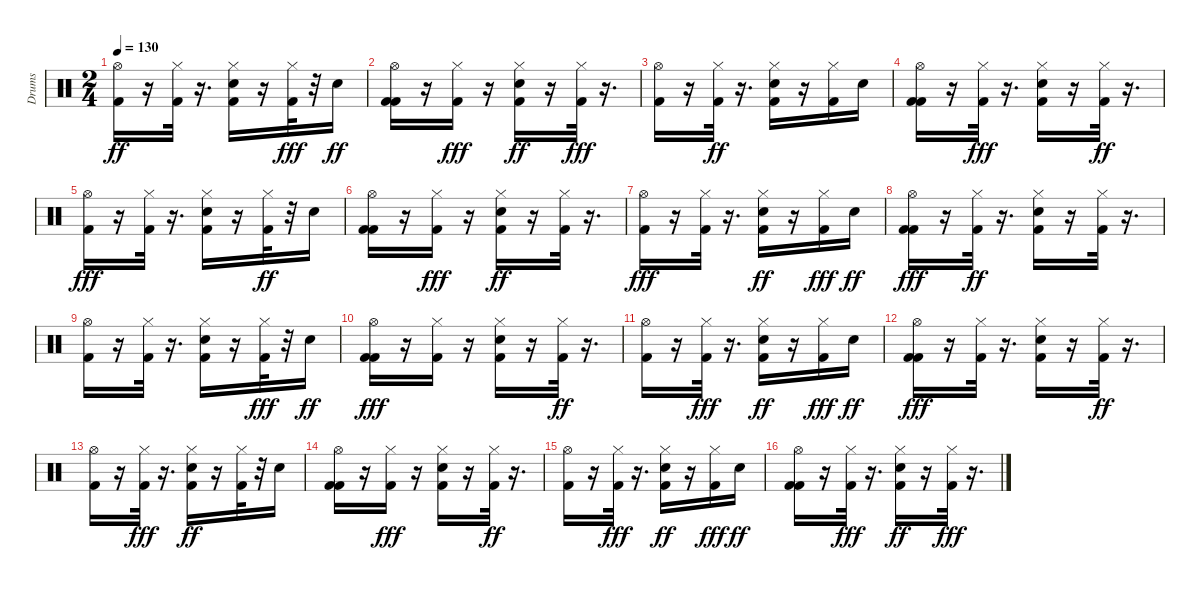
\track ("Drums" "Drums") {solo instrument percussion}
\staff {score}
\articulation defaults
\ts (2 4)
\tempo 130
\clef neutral
\ks c
("Hi-Hat (open)" "Kick (hit) 2").16{dy ff} r.16 ("Hi-Hat (closed)" "Kick (hit) 2").32 r.16{d} ("Snare (hit) 2" "Hi-Hat (closed)" "Kick (hit) 2").16 r.16 ("Kick (hit) 2" "Hi-Hat (closed)").32{dy fff} r.32 "Snare (hit) 2".16{dy ff} |
("Kick (hit) 2" "Hi-Hat (open)" "Kick (hit) 2").16 r.16 ("Kick (hit) 2" "Hi-Hat (closed)").16{dy fff} r.16 ("Kick (hit) 2" "Hi-Hat (closed)" "Snare (hit) 2").16{dy ff} r.16 ("Kick (hit) 2" "Hi-Hat (closed)").32{dy fff} r.16{d} |
("Kick (hit) 2" "Hi-Hat (open)").16 r.16 ("Hi-Hat (closed)" "Kick (hit) 2").32{dy ff} r.16{d} ("Hi-Hat (closed)" "Kick (hit) 2" "Snare (hit) 2").16 r.16 ("Hi-Hat (closed)" "Kick (hit) 2").16 "Snare (hit) 2".16 |
("Hi-Hat (open)" "Kick (hit) 2" "Kick (hit) 2").16 r.16 ("Kick (hit) 2" "Hi-Hat (closed)").32{dy fff} r.16{d} ("Kick (hit) 2" "Snare (hit) 2" "Hi-Hat (closed)").16 r.16 ("Hi-Hat (closed)" "Kick (hit) 2").32{dy ff} r.16{d} |
("Kick (hit) 2" "Hi-Hat (open)").16{dy fff} r.16 ("Kick (hit) 2" "Hi-Hat (closed)").32 r.16{d} ("Snare (hit) 2" "Kick (hit) 2" "Hi-Hat (closed)").16 r.16 ("Hi-Hat (closed)" "Kick (hit) 2").32{dy ff} r.32 "Snare (hit) 2".16 |
("Kick (hit) 2" "Hi-Hat (open)" "Kick (hit) 2").16 r.16 ("Kick (hit) 2" "Hi-Hat (closed)").16{dy fff} r.16 ("Hi-Hat (closed)" "Snare (hit) 2" "Kick (hit) 2").16{dy ff} r.16 ("Hi-Hat (closed)" "Kick (hit) 2").32 r.16{d} |
("Kick (hit) 2" "Hi-Hat (open)").16{dy fff} r.16 ("Kick (hit) 2" "Hi-Hat (closed)").32 r.16{d} ("Hi-Hat (closed)" "Snare (hit) 2" "Kick (hit) 2").16{dy ff} r.16 ("Kick (hit) 2" "Hi-Hat (closed)").16{dy fff} "Snare (hit) 2".16{dy ff} |
("Kick (hit) 2" "Kick (hit) 2" "Hi-Hat (open)").16{dy fff} r.16 ("Hi-Hat (closed)" "Kick (hit) 2").32{dy ff} r.16{d} ("Kick (hit) 2" "Hi-Hat (closed)" "Snare (hit) 2").16 r.16 ("Hi-Hat (closed)" "Kick (hit) 2").32 r.16{d} |
("Hi-Hat (open)" "Kick (hit) 2").16 r.16 ("Hi-Hat (closed)" "Kick (hit) 2").32 r.16{d} ("Kick (hit) 2" "Hi-Hat (closed)" "Snare (hit) 2").16 r.16 ("Kick (hit) 2" "Hi-Hat (closed)").32{dy fff} r.32 "Snare (hit) 2".16{dy ff} |
("Kick (hit) 2" "Kick (hit) 2" "Hi-Hat (open)").16{dy fff} r.16 ("Kick (hit) 2" "Hi-Hat (closed)").16 r.16 ("Snare (hit) 2" "Kick (hit) 2" "Hi-Hat (closed)").16 r.16 ("Hi-Hat (closed)" "Kick (hit) 2").32{dy ff} r.16{d} |
("Hi-Hat (open)" "Kick (hit) 2").16 r.16 ("Kick (hit) 2" "Hi-Hat (closed)").32{dy fff} r.16{d} ("Hi-Hat (closed)" "Snare (hit) 2" "Kick (hit) 2").16{dy ff} r.16 ("Kick (hit) 2" "Hi-Hat (closed)").16{dy fff} "Snare (hit) 2".16{dy ff} |
("Kick (hit) 2" "Kick (hit) 2" "Hi-Hat (open)").16{dy fff} r.16 ("Kick (hit) 2" "Hi-Hat (closed)").32 r.16{d} ("Kick (hit) 2" "Snare (hit) 2" "Hi-Hat (closed)").16 r.16 ("Hi-Hat (closed)" "Kick (hit) 2").32{dy ff} r.16{d} |
("Hi-Hat (open)" "Kick (hit) 2").16 r.16 ("Kick (hit) 2" "Hi-Hat (closed)").32{dy fff} r.16{d} ("Hi-Hat (closed)" "Kick (hit) 2" "Snare (hit) 2").16{dy ff} r.16 ("Hi-Hat (closed)" "Kick (hit) 2").32 r.32 "Snare (hit) 2".16 |
("Kick (hit) 2" "Hi-Hat (open)" "Kick (hit) 2").16 r.16 ("Kick (hit) 2" "Hi-Hat (closed)").16{dy fff} r.16 ("Kick (hit) 2" "Snare (hit) 2" "Hi-Hat (closed)").16 r.16 ("Hi-Hat (closed)" "Kick (hit) 2").32{dy ff} r.16{d} |
("Hi-Hat (open)" "Kick (hit) 2").16 r.16 ("Kick (hit) 2" "Hi-Hat (closed)").32{dy fff} r.16{d} ("Kick (hit) 2" "Hi-Hat (closed)" "Snare (hit) 2").16{dy ff} r.16 ("Kick (hit) 2" "Hi-Hat (closed)").16{dy fff} "Snare (hit) 2".16{dy ff} |
("Kick (hit) 2" "Hi-Hat (open)" "Kick (hit) 2").16 r.16 ("Kick (hit) 2" "Hi-Hat (closed)").32{dy fff} r.16{d} ("Snare (hit) 2" "Hi-Hat (closed)" "Kick (hit) 2").16{dy ff} r.16 ("Kick (hit) 2" "Hi-Hat (closed)").32{dy fff} r.16{d}
